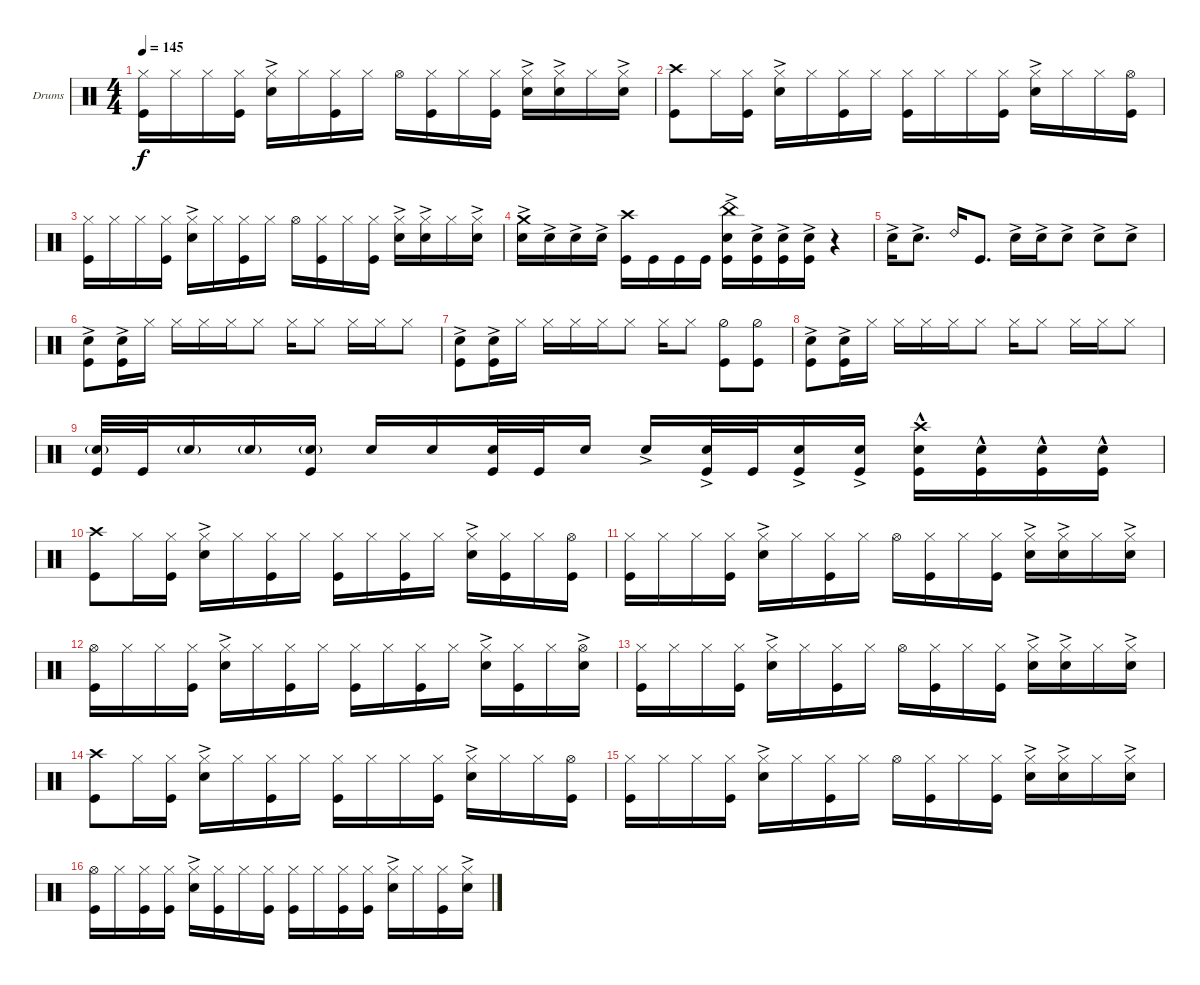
\defaultSystemsLayout 4
\bracketExtendMode groupsimilarinstruments
\firstSystemTrackNameOrientation horizontal
\otherSystemsTrackNameOrientation horizontal
\track ("Drumkit" "Drums") {instrument percussion}
\staff {score}
\articulation defaults
\ts (4 4)
\tempo 145
\clef neutral
\ks c
("Kick (hit)" "Hi-Hat (closed)").16{dy f} "Hi-Hat (closed)".16 "Hi-Hat (closed)".16 ("Kick (hit)" "Hi-Hat (closed)").16 ("Snare (hit) 2"{ac} "Hi-Hat (closed)").16 "Hi-Hat (closed)".16 ("Hi-Hat (closed)" "Kick (hit)").16 "Hi-Hat (closed)".16 "Hi-Hat (open)".16 ("Hi-Hat (closed)" "Kick (hit)").16 "Hi-Hat (closed)".16 ("Hi-Hat (closed)" "Kick (hit)").16 ("Hi-Hat (closed)" "Snare (hit) 2"{ac}).16 ("Hi-Hat (closed)" "Snare (hit) 2"{ac}).16 "Hi-Hat (closed)".16 ("Hi-Hat (closed)" "Snare (hit) 2"{ac}).16 |
("Kick (hit)" "Crash high (hit)").8 "Hi-Hat (closed)".16 ("Kick (hit)" "Hi-Hat (closed)").16 ("Snare (hit) 2"{ac} "Hi-Hat (closed)").16 "Hi-Hat (closed)".16 ("Hi-Hat (closed)" "Kick (hit)").16 "Hi-Hat (closed)".16 ("Hi-Hat (closed)" "Kick (hit)").16 "Hi-Hat (closed)".16 "Hi-Hat (closed)".16 ("Kick (hit)" "Hi-Hat (closed)").16 ("Hi-Hat (closed)" "Snare (hit) 2"{ac}).16 "Hi-Hat (closed)".16 "Hi-Hat (closed)".16 ("Hi-Hat (open)" "Kick (hit)").16 |
("Kick (hit)" "Hi-Hat (closed)").16 "Hi-Hat (closed)".16 "Hi-Hat (closed)".16 ("Kick (hit)" "Hi-Hat (closed)").16 ("Snare (hit) 2"{ac} "Hi-Hat (closed)").16 "Hi-Hat (closed)".16 ("Hi-Hat (closed)" "Kick (hit)").16 "Hi-Hat (closed)".16 "Hi-Hat (open)".16 ("Hi-Hat (closed)" "Kick (hit)").16 "Hi-Hat (closed)".16 ("Hi-Hat (closed)" "Kick (hit)").16 ("Hi-Hat (closed)" "Snare (hit) 2"{ac}).16 ("Hi-Hat (closed)" "Snare (hit) 2"{ac}).16 "Hi-Hat (closed)".16 ("Hi-Hat (closed)" "Snare (hit) 2"{ac}).16 |
("Snare (hit) 2"{ac} "Crash medium (hit)"{ac}).16 "Snare (hit) 2"{ac}.16 "Snare (hit) 2"{ac}.16 "Snare (hit) 2"{ac}.16 ("Kick (hit)" "Crash high (hit)").16 "Kick (hit)".16 "Kick (hit)".16 "Kick (hit)".16 ("Snare (hit) 2"{ac} "Kick (hit)" "China (hit)"{ac}).16 ("Snare (hit) 2"{ac} "Kick (hit)").16 ("Snare (hit) 2"{ac} "Kick (hit)").16 ("Snare (hit) 2"{ac} "Kick (hit)").16 r.4 |
"Snare (hit) 2"{ac}.16 "Snare (hit) 2"{ac}.8{d} "Ride (bell) 2".16 "Kick (hit)".8{d} "Snare (hit) 2"{ac}.16 "Snare (hit) 2"{ac}.16 "Snare (hit) 2"{ac}.8 "Snare (hit) 2"{ac}.8 "Snare (hit) 2"{ac}.8 |
("Snare (hit) 2"{ac} "Kick (hit)").8 ("Snare (hit) 2"{ac} "Kick (hit)").16 "Hi-Hat (closed)".16 "Hi-Hat (closed)".16 "Hi-Hat (closed)".16 "Hi-Hat (closed)".16 "Hi-Hat (closed)".8 "Hi-Hat (closed)".16 "Hi-Hat (closed)".8 "Hi-Hat (closed)".16 "Hi-Hat (closed)".16 "Hi-Hat (closed)".8 |
("Snare (hit) 2"{ac} "Kick (hit)").8 ("Snare (hit) 2"{ac} "Kick (hit)").16 "Hi-Hat (closed)".16 "Hi-Hat (closed)".16 "Hi-Hat (closed)".16 "Hi-Hat (closed)".16 "Hi-Hat (closed)".8 "Hi-Hat (closed)".16 "Hi-Hat (closed)".8 ("Hi-Hat (half)" "Kick (hit)").8 ("Hi-Hat (half)" "Kick (hit)").8 |
("Snare (hit) 2"{ac} "Kick (hit)").8 ("Snare (hit) 2"{ac} "Kick (hit)").16 "Hi-Hat (closed)".16 "Hi-Hat (closed)".16 "Hi-Hat (closed)".16 "Hi-Hat (closed)".16 "Hi-Hat (closed)".8 "Hi-Hat (closed)".16 "Hi-Hat (closed)".8 "Hi-Hat (closed)".16 "Hi-Hat (closed)".16 "Hi-Hat (closed)".8 |
("Snare (hit) 2"{g} "Kick (hit)").32 "Kick (hit)".32 "Snare (hit) 2"{g}.16 "Snare (hit) 2"{g}.16 ("Snare (hit) 2"{g} "Kick (hit)").16 "Snare (hit) 2".16 "Snare (hit) 2".16 ("Snare (hit) 2" "Kick (hit)").32 "Kick (hit)".32 "Snare (hit) 2".16 "Snare (hit) 2"{ac}.16 ("Snare (hit) 2"{ac} "Kick (hit)").32 "Kick (hit)".32 ("Snare (hit) 2"{ac} "Kick (hit)").16 ("Snare (hit) 2"{ac} "Kick (hit)").16 ("Snare (hit) 2"{hac} "Kick (hit)" "Crash high (hit)").16 ("Snare (hit) 2"{hac} "Kick (hit)").16 ("Snare (hit) 2"{hac} "Kick (hit)").16 ("Snare (hit) 2"{hac} "Kick (hit)").16 |
("Kick (hit)" "Crash high (hit)").8 "Hi-Hat (closed)".16 ("Kick (hit)" "Hi-Hat (closed)").16 ("Snare (hit) 2"{ac} "Hi-Hat (closed)").16 "Hi-Hat (closed)".16 ("Hi-Hat (closed)" "Kick (hit)").16 "Hi-Hat (closed)".16 ("Hi-Hat (closed)" "Kick (hit)").16 "Hi-Hat (closed)".16 ("Hi-Hat (closed)" "Kick (hit)").16 "Hi-Hat (closed)".16 ("Hi-Hat (closed)" "Snare (hit) 2"{ac}).16 ("Hi-Hat (closed)" "Kick (hit)").16 "Hi-Hat (closed)".16 ("Hi-Hat (open)" "Kick (hit)").16 |
("Kick (hit)" "Hi-Hat (closed)").16 "Hi-Hat (closed)".16 "Hi-Hat (closed)".16 ("Kick (hit)" "Hi-Hat (closed)").16 ("Snare (hit) 2"{ac} "Hi-Hat (closed)").16 "Hi-Hat (closed)".16 ("Hi-Hat (closed)" "Kick (hit)").16 "Hi-Hat (closed)".16 "Hi-Hat (open)".16 ("Hi-Hat (closed)" "Kick (hit)").16 "Hi-Hat (closed)".16 ("Hi-Hat (closed)" "Kick (hit)").16 ("Hi-Hat (closed)" "Snare (hit) 2"{ac}).16 ("Hi-Hat (closed)" "Snare (hit) 2"{ac}).16 "Hi-Hat (closed)".16 ("Hi-Hat (closed)" "Snare (hit) 2"{ac}).16 |
("Kick (hit)" "Hi-Hat (open)").16 "Hi-Hat (closed)".16 "Hi-Hat (closed)".16 ("Kick (hit)" "Hi-Hat (closed)").16 ("Snare (hit) 2"{ac} "Hi-Hat (closed)").16 "Hi-Hat (closed)".16 ("Hi-Hat (closed)" "Kick (hit)").16 "Hi-Hat (closed)".16 ("Hi-Hat (closed)" "Kick (hit)").16 "Hi-Hat (closed)".16 ("Hi-Hat (closed)" "Kick (hit)").16 "Hi-Hat (closed)".16 ("Hi-Hat (closed)" "Snare (hit) 2"{ac}).16 ("Hi-Hat (closed)" "Kick (hit)").16 "Hi-Hat (closed)".16 ("Hi-Hat (open)" "Snare (hit) 2"{ac}).16 |
("Kick (hit)" "Hi-Hat (closed)").16 "Hi-Hat (closed)".16 "Hi-Hat (closed)".16 ("Kick (hit)" "Hi-Hat (closed)").16 ("Snare (hit) 2"{ac} "Hi-Hat (closed)").16 "Hi-Hat (closed)".16 ("Hi-Hat (closed)" "Kick (hit)").16 "Hi-Hat (closed)".16 "Hi-Hat (open)".16 ("Hi-Hat (closed)" "Kick (hit)").16 "Hi-Hat (closed)".16 ("Hi-Hat (closed)" "Kick (hit)").16 ("Hi-Hat (closed)" "Snare (hit) 2"{ac}).16 ("Hi-Hat (closed)" "Snare (hit) 2"{ac}).16 "Hi-Hat (closed)".16 ("Hi-Hat (closed)" "Snare (hit) 2"{ac}).16 |
("Kick (hit)" "Crash high (hit)").8 "Hi-Hat (closed)".16 ("Kick (hit)" "Hi-Hat (closed)").16 ("Snare (hit) 2"{ac} "Hi-Hat (closed)").16 "Hi-Hat (closed)".16 ("Hi-Hat (closed)" "Kick (hit)").16 "Hi-Hat (closed)".16 ("Hi-Hat (closed)" "Kick (hit)").16 "Hi-Hat (closed)".16 "Hi-Hat (closed)".16 ("Kick (hit)" "Hi-Hat (closed)").16 ("Hi-Hat (closed)" "Snare (hit) 2"{ac}).16 "Hi-Hat (closed)".16 "Hi-Hat (closed)".16 ("Hi-Hat (open)" "Kick (hit)").16 |
("Kick (hit)" "Hi-Hat (closed)").16 "Hi-Hat (closed)".16 "Hi-Hat (closed)".16 ("Kick (hit)" "Hi-Hat (closed)").16 ("Snare (hit) 2"{ac} "Hi-Hat (closed)").16 "Hi-Hat (closed)".16 ("Hi-Hat (closed)" "Kick (hit)").16 "Hi-Hat (closed)".16 "Hi-Hat (open)".16 ("Hi-Hat (closed)" "Kick (hit)").16 "Hi-Hat (closed)".16 ("Hi-Hat (closed)" "Kick (hit)").16 ("Hi-Hat (closed)" "Snare (hit) 2"{ac}).16 ("Hi-Hat (closed)" "Snare (hit) 2"{ac}).16 "Hi-Hat (closed)".16 ("Hi-Hat (closed)" "Snare (hit) 2"{ac}).16 |
("Kick (hit)" "Hi-Hat (open)").16 "Hi-Hat (closed)".16 ("Hi-Hat (closed)" "Kick (hit)").16 ("Hi-Hat (closed)" "Kick (hit)").16 ("Snare (hit) 2"{ac} "Hi-Hat (closed)").16 ("Hi-Hat (closed)" "Kick (hit)").16 "Hi-Hat (closed)".16 ("Hi-Hat (closed)" "Kick (hit)").16 ("Hi-Hat (closed)" "Kick (hit)").16 "Hi-Hat (closed)".16 ("Hi-Hat (closed)" "Kick (hit)").16 ("Kick (hit)" "Hi-Hat (closed)").16 ("Hi-Hat (closed)" "Snare (hit) 2"{ac}).16 "Hi-Hat (closed)".16 ("Hi-Hat (closed)" "Kick (hit)").16 ("Hi-Hat (closed)" "Snare (hit) 2"{ac}).16
